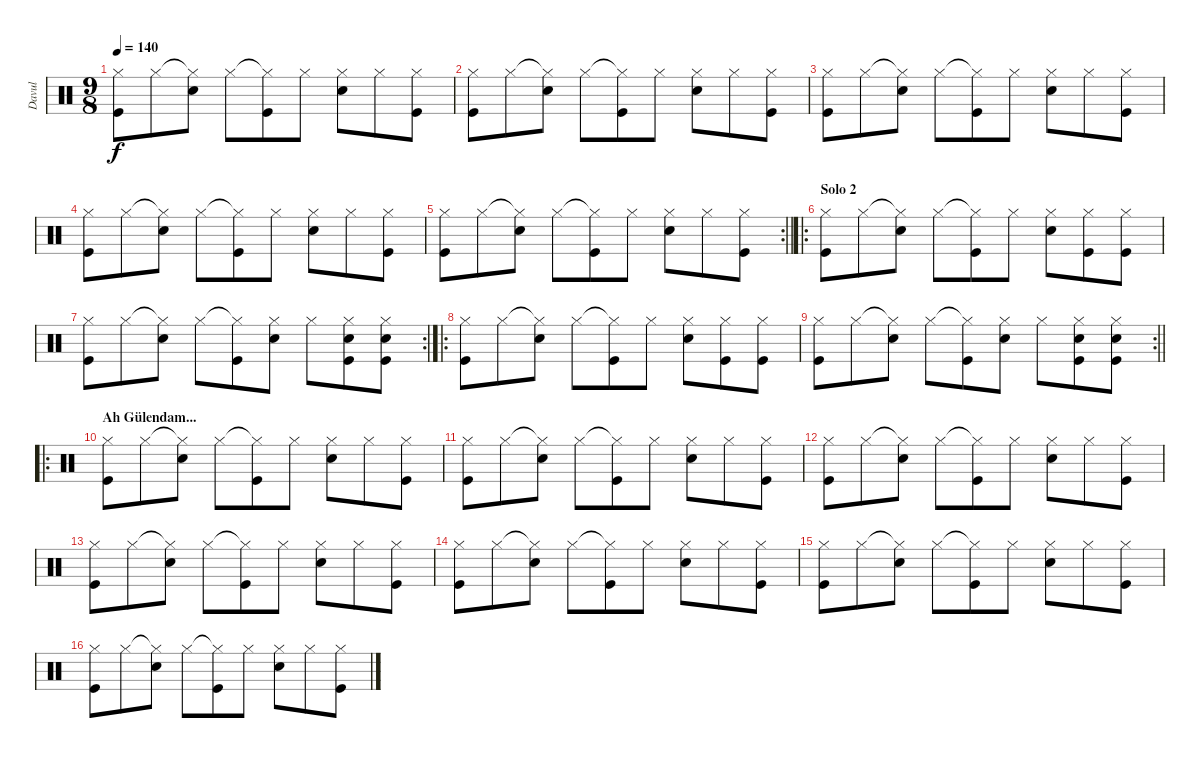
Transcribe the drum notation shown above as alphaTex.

\track ("Davul" "Davul") {instrument percussion}
\staff {score}
\articulation defaults
\ts (9 8)
\tempo 140
\clef neutral
\ks c
("Hi-Hat (closed)" "Kick (hit)").8{dy f} "Hi-Hat (closed)".8 ("Hi-Hat (closed)"{t} "Snare (hit) 2").8 "Hi-Hat (closed)".8 ("Hi-Hat (closed)"{t} "Kick (hit)").8 "Hi-Hat (closed)".8 ("Hi-Hat (closed)" "Snare (hit) 2").8 "Hi-Hat (closed)".8 ("Hi-Hat (closed)" "Kick (hit)").8 |
("Hi-Hat (closed)" "Kick (hit)").8 "Hi-Hat (closed)".8 ("Hi-Hat (closed)"{t} "Snare (hit) 2").8 "Hi-Hat (closed)".8 ("Hi-Hat (closed)"{t} "Kick (hit)").8 "Hi-Hat (closed)".8 ("Hi-Hat (closed)" "Snare (hit) 2").8 "Hi-Hat (closed)".8 ("Hi-Hat (closed)" "Kick (hit)").8 |
("Hi-Hat (closed)" "Kick (hit)").8 "Hi-Hat (closed)".8 ("Hi-Hat (closed)"{t} "Snare (hit) 2").8 "Hi-Hat (closed)".8 ("Hi-Hat (closed)"{t} "Kick (hit)").8 "Hi-Hat (closed)".8 ("Hi-Hat (closed)" "Snare (hit) 2").8 "Hi-Hat (closed)".8 ("Hi-Hat (closed)" "Kick (hit)").8 |
("Hi-Hat (closed)" "Kick (hit)").8 "Hi-Hat (closed)".8 ("Hi-Hat (closed)"{t} "Snare (hit) 2").8 "Hi-Hat (closed)".8 ("Hi-Hat (closed)"{t} "Kick (hit)").8 "Hi-Hat (closed)".8 ("Hi-Hat (closed)" "Snare (hit) 2").8 "Hi-Hat (closed)".8 ("Hi-Hat (closed)" "Kick (hit)").8 |
\rc 2
\barLineRight lightlight
("Hi-Hat (closed)" "Kick (hit)").8 "Hi-Hat (closed)".8 ("Hi-Hat (closed)"{t} "Snare (hit) 2").8 "Hi-Hat (closed)".8 ("Hi-Hat (closed)"{t} "Kick (hit)").8 "Hi-Hat (closed)".8 ("Hi-Hat (closed)" "Snare (hit) 2").8 "Hi-Hat (closed)".8 ("Hi-Hat (closed)" "Kick (hit)").8 |
\ro
\section ("" "Solo 2 ")
("Hi-Hat (closed)" "Kick (hit)").8 "Hi-Hat (closed)".8 ("Hi-Hat (closed)"{t} "Snare (hit) 2").8 "Hi-Hat (closed)".8 ("Hi-Hat (closed)"{t} "Kick (hit)").8 "Hi-Hat (closed)".8 ("Hi-Hat (closed)" "Snare (hit) 2").8 ("Hi-Hat (closed)" "Kick (hit)").8 ("Hi-Hat (closed)" "Kick (hit)").8 |
\rc 2
("Hi-Hat (closed)" "Kick (hit)").8 "Hi-Hat (closed)".8 ("Hi-Hat (closed)"{t} "Snare (hit) 2").8 "Hi-Hat (closed)".8 ("Hi-Hat (closed)"{t} "Kick (hit)").8 ("Hi-Hat (closed)" "Snare (hit) 2").8 "Hi-Hat (closed)".8 ("Hi-Hat (closed)" "Snare (hit) 2" "Kick (hit)").8 ("Hi-Hat (closed)" "Snare (hit) 2" "Kick (hit)").8 |
\ro
("Hi-Hat (closed)" "Kick (hit)").8 "Hi-Hat (closed)".8 ("Hi-Hat (closed)"{t} "Snare (hit) 2").8 "Hi-Hat (closed)".8 ("Hi-Hat (closed)"{t} "Kick (hit)").8 "Hi-Hat (closed)".8 ("Hi-Hat (closed)" "Snare (hit) 2").8 ("Hi-Hat (closed)" "Kick (hit)").8 ("Hi-Hat (closed)" "Kick (hit)").8 |
\rc 2
\barLineRight lightlight
("Hi-Hat (closed)" "Kick (hit)").8 "Hi-Hat (closed)".8 ("Hi-Hat (closed)"{t} "Snare (hit) 2").8 "Hi-Hat (closed)".8 ("Hi-Hat (closed)"{t} "Kick (hit)").8 ("Hi-Hat (closed)" "Snare (hit) 2").8 "Hi-Hat (closed)".8 ("Hi-Hat (closed)" "Snare (hit) 2" "Kick (hit)").8 ("Hi-Hat (closed)" "Snare (hit) 2" "Kick (hit)").8 |
\ro
\section ("" "Ah Gülendam...")
("Hi-Hat (closed)" "Kick (hit)").8 "Hi-Hat (closed)".8 ("Hi-Hat (closed)"{t} "Snare (hit) 2").8 "Hi-Hat (closed)".8 ("Hi-Hat (closed)"{t} "Kick (hit)").8 "Hi-Hat (closed)".8 ("Hi-Hat (closed)" "Snare (hit) 2").8 "Hi-Hat (closed)".8 ("Hi-Hat (closed)" "Kick (hit)").8 |
("Hi-Hat (closed)" "Kick (hit)").8 "Hi-Hat (closed)".8 ("Hi-Hat (closed)"{t} "Snare (hit) 2").8 "Hi-Hat (closed)".8 ("Hi-Hat (closed)"{t} "Kick (hit)").8 "Hi-Hat (closed)".8 ("Hi-Hat (closed)" "Snare (hit) 2").8 "Hi-Hat (closed)".8 ("Hi-Hat (closed)" "Kick (hit)").8 |
("Hi-Hat (closed)" "Kick (hit)").8 "Hi-Hat (closed)".8 ("Hi-Hat (closed)"{t} "Snare (hit) 2").8 "Hi-Hat (closed)".8 ("Hi-Hat (closed)"{t} "Kick (hit)").8 "Hi-Hat (closed)".8 ("Hi-Hat (closed)" "Snare (hit) 2").8 "Hi-Hat (closed)".8 ("Hi-Hat (closed)" "Kick (hit)").8 |
("Hi-Hat (closed)" "Kick (hit)").8 "Hi-Hat (closed)".8 ("Hi-Hat (closed)"{t} "Snare (hit) 2").8 "Hi-Hat (closed)".8 ("Hi-Hat (closed)"{t} "Kick (hit)").8 "Hi-Hat (closed)".8 ("Hi-Hat (closed)" "Snare (hit) 2").8 "Hi-Hat (closed)".8 ("Hi-Hat (closed)" "Kick (hit)").8 |
("Hi-Hat (closed)" "Kick (hit)").8 "Hi-Hat (closed)".8 ("Hi-Hat (closed)"{t} "Snare (hit) 2").8 "Hi-Hat (closed)".8 ("Hi-Hat (closed)"{t} "Kick (hit)").8 "Hi-Hat (closed)".8 ("Hi-Hat (closed)" "Snare (hit) 2").8 "Hi-Hat (closed)".8 ("Hi-Hat (closed)" "Kick (hit)").8 |
("Hi-Hat (closed)" "Kick (hit)").8 "Hi-Hat (closed)".8 ("Hi-Hat (closed)"{t} "Snare (hit) 2").8 "Hi-Hat (closed)".8 ("Hi-Hat (closed)"{t} "Kick (hit)").8 "Hi-Hat (closed)".8 ("Hi-Hat (closed)" "Snare (hit) 2").8 "Hi-Hat (closed)".8 ("Hi-Hat (closed)" "Kick (hit)").8 |
("Hi-Hat (closed)" "Kick (hit)").8 "Hi-Hat (closed)".8 ("Hi-Hat (closed)"{t} "Snare (hit) 2").8 "Hi-Hat (closed)".8 ("Hi-Hat (closed)"{t} "Kick (hit)").8 "Hi-Hat (closed)".8 ("Hi-Hat (closed)" "Snare (hit) 2").8 "Hi-Hat (closed)".8 ("Hi-Hat (closed)" "Kick (hit)").8
